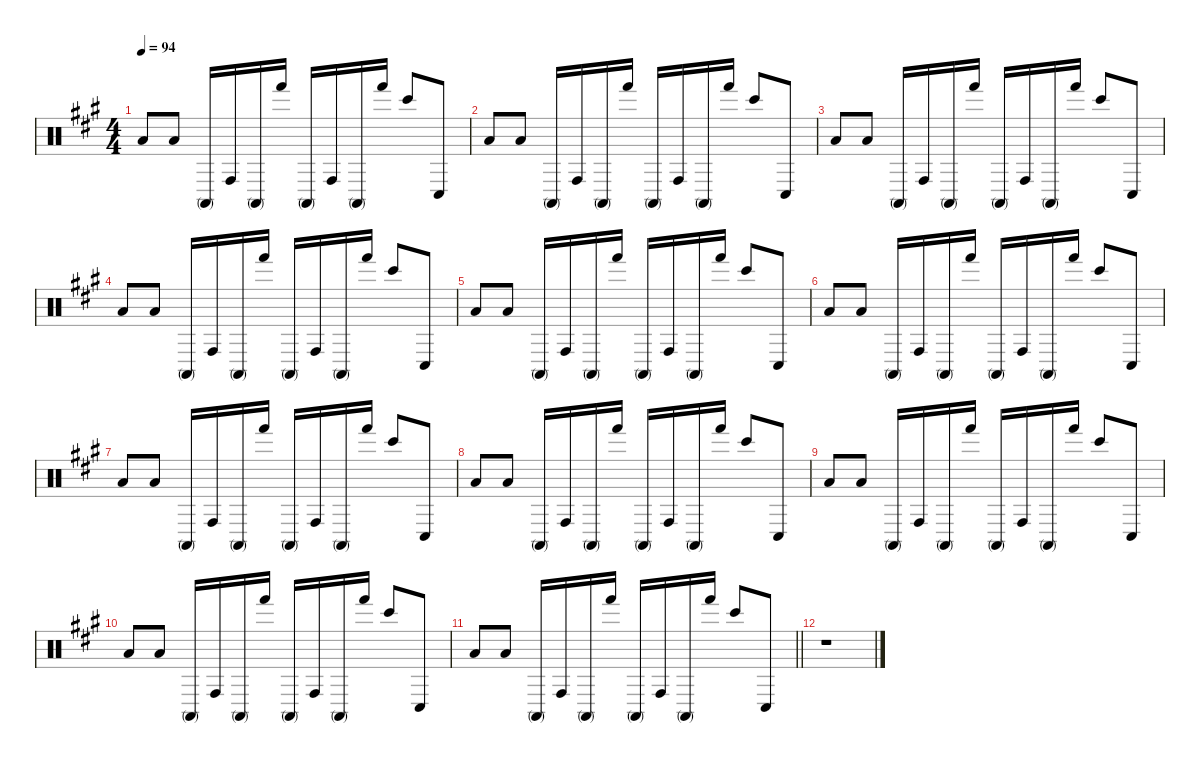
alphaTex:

\defaultSystemsLayout 4
\hideDynamics
\bracketExtendMode nobrackets
\singleTrackTrackNamePolicy hidden
\multiTrackTrackNamePolicy hidden
\firstSystemTrackNameMode fullname
\firstSystemTrackNameOrientation horizontal
\otherSystemsTrackNameOrientation horizontal
\track ("Bongos" "drm.") {defaultSystemsLayout 4 instrument percussion}
\staff {score}
\articulation defaults
\ts (4 4)
\tempo 94
\clef neutral
\ks a "Low Floor Tom (hit)"{acc forcenatural}.8{dy f beam Up} "Low Floor Tom (hit)"{acc forcenatural}.8{beam Up} "Conga high (mute)"{acc forcenatural}.16{beam Up} "Conga high (hit)"{acc forcenatural}.16{beam Up} "Conga high (mute)"{acc forcenatural}.16{beam Up} "Hand (hit)"{acc forcenatural}.16{beam Up} "Conga high (mute)"{acc forcenatural}.16{beam Up} "Conga high (hit)"{acc forcenatural}.16{beam Up} "Conga high (mute)"{acc forcenatural}.16{beam Up} "Hand (hit)"{acc forcenatural}.16{beam Up} "Bongo High (hit)"{acc forcenatural}.8{beam Up} "Conga low (hit)"{acc forcenatural}.8{beam Up}
|
"Low Floor Tom (hit)"{acc forcenatural}.8{beam Up} "Low Floor Tom (hit)"{acc forcenatural}.8{beam Up} "Conga high (mute)"{acc forcenatural}.16{beam Up} "Conga high (hit)"{acc forcenatural}.16{beam Up} "Conga high (mute)"{acc forcenatural}.16{beam Up} "Hand (hit)"{acc forcenatural}.16{beam Up} "Conga high (mute)"{acc forcenatural}.16{beam Up} "Conga high (hit)"{acc forcenatural}.16{beam Up} "Conga high (mute)"{acc forcenatural}.16{beam Up} "Hand (hit)"{acc forcenatural}.16{beam Up} "Bongo High (hit)"{acc forcenatural}.8{beam Up} "Conga low (hit)"{acc forcenatural}.8{beam Up} |
"Low Floor Tom (hit)"{acc forcenatural}.8{beam Up} "Low Floor Tom (hit)"{acc forcenatural}.8{beam Up} "Conga high (mute)"{acc forcenatural}.16{beam Up} "Conga high (hit)"{acc forcenatural}.16{beam Up} "Conga high (mute)"{acc forcenatural}.16{beam Up} "Hand (hit)"{acc forcenatural}.16{beam Up} "Conga high (mute)"{acc forcenatural}.16{beam Up} "Conga high (hit)"{acc forcenatural}.16{beam Up} "Conga high (mute)"{acc forcenatural}.16{beam Up} "Hand (hit)"{acc forcenatural}.16{beam Up} "Bongo High (hit)"{acc forcenatural}.8{beam Up} "Conga low (hit)"{acc forcenatural}.8{beam Up} |
"Low Floor Tom (hit)"{acc forcenatural}.8{beam Up} "Low Floor Tom (hit)"{acc forcenatural}.8{beam Up} "Conga high (mute)"{acc forcenatural}.16{beam Up} "Conga high (hit)"{acc forcenatural}.16{beam Up} "Conga high (mute)"{acc forcenatural}.16{beam Up} "Hand (hit)"{acc forcenatural}.16{beam Up} "Conga high (mute)"{acc forcenatural}.16{beam Up} "Conga high (hit)"{acc forcenatural}.16{beam Up} "Conga high (mute)"{acc forcenatural}.16{beam Up} "Hand (hit)"{acc forcenatural}.16{beam Up} "Bongo High (hit)"{acc forcenatural}.8{beam Up} "Conga low (hit)"{acc forcenatural}.8{beam Up} |
"Low Floor Tom (hit)"{acc forcenatural}.8{beam Up} "Low Floor Tom (hit)"{acc forcenatural}.8{beam Up} "Conga high (mute)"{acc forcenatural}.16{beam Up} "Conga high (hit)"{acc forcenatural}.16{beam Up} "Conga high (mute)"{acc forcenatural}.16{beam Up} "Hand (hit)"{acc forcenatural}.16{beam Up} "Conga high (mute)"{acc forcenatural}.16{beam Up} "Conga high (hit)"{acc forcenatural}.16{beam Up} "Conga high (mute)"{acc forcenatural}.16{beam Up} "Hand (hit)"{acc forcenatural}.16{beam Up} "Bongo High (hit)"{acc forcenatural}.8{beam Up} "Conga low (hit)"{acc forcenatural}.8{beam Up} |
"Low Floor Tom (hit)"{acc forcenatural}.8{beam Up} "Low Floor Tom (hit)"{acc forcenatural}.8{beam Up} "Conga high (mute)"{acc forcenatural}.16{beam Up} "Conga high (hit)"{acc forcenatural}.16{beam Up} "Conga high (mute)"{acc forcenatural}.16{beam Up} "Hand (hit)"{acc forcenatural}.16{beam Up} "Conga high (mute)"{acc forcenatural}.16{beam Up} "Conga high (hit)"{acc forcenatural}.16{beam Up} "Conga high (mute)"{acc forcenatural}.16{beam Up} "Hand (hit)"{acc forcenatural}.16{beam Up} "Bongo High (hit)"{acc forcenatural}.8{beam Up} "Conga low (hit)"{acc forcenatural}.8{beam Up} |
"Low Floor Tom (hit)"{acc forcenatural}.8{beam Up} "Low Floor Tom (hit)"{acc forcenatural}.8{beam Up} "Conga high (mute)"{acc forcenatural}.16{beam Up} "Conga high (hit)"{acc forcenatural}.16{beam Up} "Conga high (mute)"{acc forcenatural}.16{beam Up} "Hand (hit)"{acc forcenatural}.16{beam Up} "Conga high (mute)"{acc forcenatural}.16{beam Up} "Conga high (hit)"{acc forcenatural}.16{beam Up} "Conga high (mute)"{acc forcenatural}.16{beam Up} "Hand (hit)"{acc forcenatural}.16{beam Up} "Bongo High (hit)"{acc forcenatural}.8{beam Up} "Conga low (hit)"{acc forcenatural}.8{beam Up} |
"Low Floor Tom (hit)"{acc forcenatural}.8{beam Up} "Low Floor Tom (hit)"{acc forcenatural}.8{beam Up} "Conga high (mute)"{acc forcenatural}.16{beam Up} "Conga high (hit)"{acc forcenatural}.16{beam Up} "Conga high (mute)"{acc forcenatural}.16{beam Up} "Hand (hit)"{acc forcenatural}.16{beam Up} "Conga high (mute)"{acc forcenatural}.16{beam Up} "Conga high (hit)"{acc forcenatural}.16{beam Up} "Conga high (mute)"{acc forcenatural}.16{beam Up} "Hand (hit)"{acc forcenatural}.16{beam Up} "Bongo High (hit)"{acc forcenatural}.8{beam Up} "Conga low (hit)"{acc forcenatural}.8{beam Up} |
"Low Floor Tom (hit)"{acc forcenatural}.8{beam Up} "Low Floor Tom (hit)"{acc forcenatural}.8{beam Up} "Conga high (mute)"{acc forcenatural}.16{beam Up} "Conga high (hit)"{acc forcenatural}.16{beam Up} "Conga high (mute)"{acc forcenatural}.16{beam Up} "Hand (hit)"{acc forcenatural}.16{beam Up} "Conga high (mute)"{acc forcenatural}.16{beam Up} "Conga high (hit)"{acc forcenatural}.16{beam Up} "Conga high (mute)"{acc forcenatural}.16{beam Up} "Hand (hit)"{acc forcenatural}.16{beam Up} "Bongo High (hit)"{acc forcenatural}.8{beam Up} "Conga low (hit)"{acc forcenatural}.8{beam Up} |
"Low Floor Tom (hit)"{acc forcenatural}.8{beam Up} "Low Floor Tom (hit)"{acc forcenatural}.8{beam Up} "Conga high (mute)"{acc forcenatural}.16{beam Up} "Conga high (hit)"{acc forcenatural}.16{beam Up} "Conga high (mute)"{acc forcenatural}.16{beam Up} "Hand (hit)"{acc forcenatural}.16{beam Up} "Conga high (mute)"{acc forcenatural}.16{beam Up} "Conga high (hit)"{acc forcenatural}.16{beam Up} "Conga high (mute)"{acc forcenatural}.16{beam Up} "Hand (hit)"{acc forcenatural}.16{beam Up} "Bongo High (hit)"{acc forcenatural}.8{beam Up} "Conga low (hit)"{acc forcenatural}.8{beam Up} |
\barLineRight lightlight "Low Floor Tom (hit)"{acc forcenatural}.8{beam Up} "Low Floor Tom (hit)"{acc forcenatural}.8{beam Up} "Conga high (mute)"{acc forcenatural}.16{beam Up} "Conga high (hit)"{acc forcenatural}.16{beam Up} "Conga high (mute)"{acc forcenatural}.16{beam Up} "Hand (hit)"{acc forcenatural}.16{beam Up} "Conga high (mute)"{acc forcenatural}.16{beam Up} "Conga high (hit)"{acc forcenatural}.16{beam Up} "Conga high (mute)"{acc forcenatural}.16{beam Up} "Hand (hit)"{acc forcenatural}.16{beam Up} "Bongo High (hit)"{acc forcenatural}.8{beam Up} "Conga low (hit)"{acc forcenatural}.8{beam Up}
|
r.1{beam Down}
